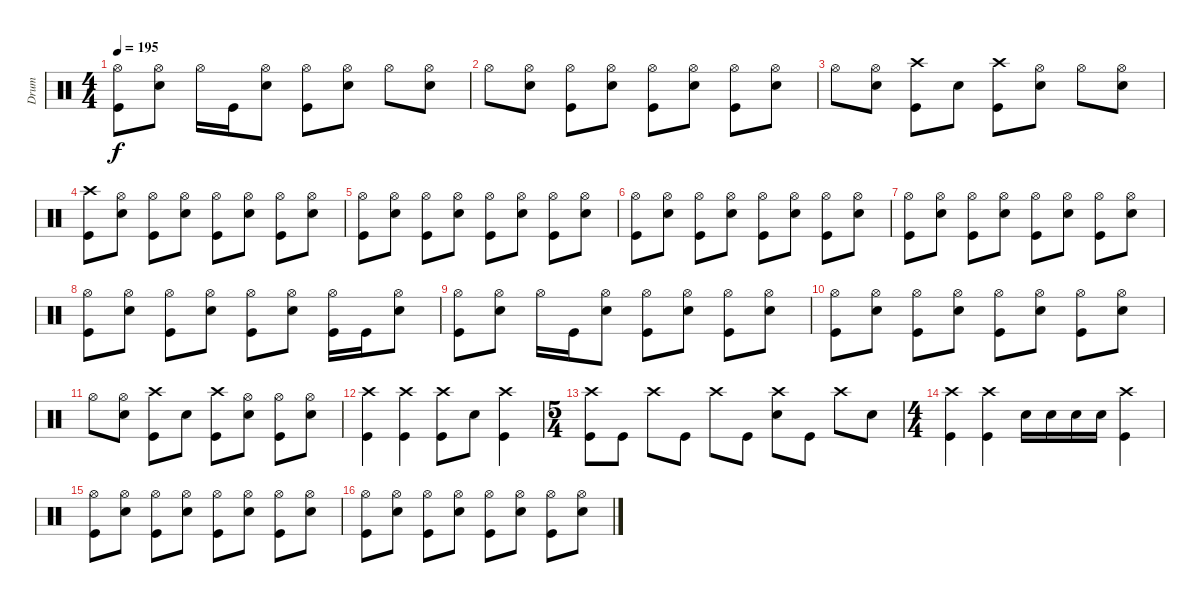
\track ("Drum" "Drum") {instrument percussion}
\staff {score}
\articulation defaults
\ts (4 4)
\tempo 195
\clef neutral
\ks c
("Hi-Hat (open)" "Kick (hit)").8{dy f} ("Hi-Hat (open)" "Snare (hit) 2").8 "Hi-Hat (open)".16 "Kick (hit)".16 ("Hi-Hat (open)" "Snare (hit) 2").8 ("Hi-Hat (open)" "Kick (hit)").8 ("Hi-Hat (open)" "Snare (hit) 2").8 "Hi-Hat (open)".8 ("Hi-Hat (open)" "Snare (hit) 2").8 |
"Hi-Hat (open)".8 ("Hi-Hat (open)" "Snare (hit) 2").8 ("Hi-Hat (open)" "Kick (hit)").8 ("Hi-Hat (open)" "Snare (hit) 2").8 ("Hi-Hat (open)" "Kick (hit)").8 ("Hi-Hat (open)" "Snare (hit) 2").8 ("Hi-Hat (open)" "Kick (hit)").8 ("Hi-Hat (open)" "Snare (hit) 2").8 |
"Hi-Hat (open)".8 ("Hi-Hat (open)" "Snare (hit) 2").8 ("Crash high (hit)" "Kick (hit)").8 "Snare (hit) 2".8 ("Crash high (hit)" "Kick (hit)").8 ("Hi-Hat (open)" "Snare (hit) 2").8 "Hi-Hat (open)".8 ("Hi-Hat (open)" "Snare (hit) 2").8 |
("Crash high (hit)" "Kick (hit)").8 ("Hi-Hat (open)" "Snare (hit) 2").8 ("Hi-Hat (open)" "Kick (hit)").8 ("Hi-Hat (open)" "Snare (hit) 2").8 ("Hi-Hat (open)" "Kick (hit)").8 ("Hi-Hat (open)" "Snare (hit) 2").8 ("Hi-Hat (open)" "Kick (hit)").8 ("Hi-Hat (open)" "Snare (hit) 2").8 |
("Hi-Hat (open)" "Kick (hit)").8 ("Hi-Hat (open)" "Snare (hit) 2").8 ("Hi-Hat (open)" "Kick (hit)").8 ("Hi-Hat (open)" "Snare (hit) 2").8 ("Hi-Hat (open)" "Kick (hit)").8 ("Hi-Hat (open)" "Snare (hit) 2").8 ("Hi-Hat (open)" "Kick (hit)").8 ("Hi-Hat (open)" "Snare (hit) 2").8 |
("Hi-Hat (open)" "Kick (hit)").8 ("Hi-Hat (open)" "Snare (hit) 2").8 ("Hi-Hat (open)" "Kick (hit)").8 ("Hi-Hat (open)" "Snare (hit) 2").8 ("Hi-Hat (open)" "Kick (hit)").8 ("Hi-Hat (open)" "Snare (hit) 2").8 ("Hi-Hat (open)" "Kick (hit)").8 ("Hi-Hat (open)" "Snare (hit) 2").8 |
("Hi-Hat (open)" "Kick (hit)").8 ("Hi-Hat (open)" "Snare (hit) 2").8 ("Hi-Hat (open)" "Kick (hit)").8 ("Hi-Hat (open)" "Snare (hit) 2").8 ("Hi-Hat (open)" "Kick (hit)").8 ("Hi-Hat (open)" "Snare (hit) 2").8 ("Hi-Hat (open)" "Kick (hit)").8 ("Hi-Hat (open)" "Snare (hit) 2").8 |
("Hi-Hat (open)" "Kick (hit)").8 ("Hi-Hat (open)" "Snare (hit) 2").8 ("Hi-Hat (open)" "Kick (hit)").8 ("Hi-Hat (open)" "Snare (hit) 2").8 ("Hi-Hat (open)" "Kick (hit)").8 ("Hi-Hat (open)" "Snare (hit) 2").8 ("Hi-Hat (open)" "Kick (hit)").16 "Kick (hit)".16 ("Hi-Hat (open)" "Snare (hit) 2").8 |
("Hi-Hat (open)" "Kick (hit)").8 ("Hi-Hat (open)" "Snare (hit) 2").8 "Hi-Hat (open)".16 "Kick (hit)".16 ("Hi-Hat (open)" "Snare (hit) 2").8 ("Hi-Hat (open)" "Kick (hit)").8 ("Hi-Hat (open)" "Snare (hit) 2").8 ("Hi-Hat (open)" "Kick (hit)").8 ("Hi-Hat (open)" "Snare (hit) 2").8 |
("Hi-Hat (open)" "Kick (hit)").8 ("Hi-Hat (open)" "Snare (hit) 2").8 ("Hi-Hat (open)" "Kick (hit)").8 ("Hi-Hat (open)" "Snare (hit) 2").8 ("Hi-Hat (open)" "Kick (hit)").8 ("Hi-Hat (open)" "Snare (hit) 2").8 ("Hi-Hat (open)" "Kick (hit)").8 ("Hi-Hat (open)" "Snare (hit) 2").8 |
"Hi-Hat (open)".8 ("Hi-Hat (open)" "Snare (hit) 2").8 ("Crash high (hit)" "Kick (hit)").8 "Snare (hit) 2".8 ("Crash high (hit)" "Kick (hit)").8 ("Hi-Hat (open)" "Snare (hit) 2").8 ("Hi-Hat (open)" "Kick (hit)").8 ("Hi-Hat (open)" "Snare (hit) 2").8 |
("Crash high (hit)" "Kick (hit)").4 ("Crash high (hit)" "Kick (hit)").4 ("Crash high (hit)" "Kick (hit)").8 "Snare (hit) 2".8 ("Crash high (hit)" "Kick (hit)").4 |
\ts (5 4)
("Crash high (hit)" "Kick (hit)").8 "Kick (hit)".8 "Crash high (hit)".8 "Kick (hit)".8 "Crash high (hit)".8 "Kick (hit)".8 ("Crash high (hit)" "Snare (hit) 2").8 "Kick (hit)".8 "Crash high (hit)".8 "Snare (hit) 2".8 |
\ts (4 4)
("Crash high (hit)" "Kick (hit)").4 ("Crash high (hit)" "Kick (hit)").4 "Snare (hit) 2".16 "Snare (hit) 2".16 "Snare (hit) 2".16 "Snare (hit) 2".16 ("Crash high (hit)" "Kick (hit)").4 |
("Hi-Hat (open)" "Kick (hit)").8 ("Hi-Hat (open)" "Snare (hit) 2").8 ("Hi-Hat (open)" "Kick (hit)").8 ("Hi-Hat (open)" "Snare (hit) 2").8 ("Hi-Hat (open)" "Kick (hit)").8 ("Hi-Hat (open)" "Snare (hit) 2").8 ("Hi-Hat (open)" "Kick (hit)").8 ("Hi-Hat (open)" "Snare (hit) 2").8 |
("Hi-Hat (open)" "Kick (hit)").8 ("Hi-Hat (open)" "Snare (hit) 2").8 ("Hi-Hat (open)" "Kick (hit)").8 ("Hi-Hat (open)" "Snare (hit) 2").8 ("Hi-Hat (open)" "Kick (hit)").8 ("Hi-Hat (open)" "Snare (hit) 2").8 ("Hi-Hat (open)" "Kick (hit)").8 ("Hi-Hat (open)" "Snare (hit) 2").8
